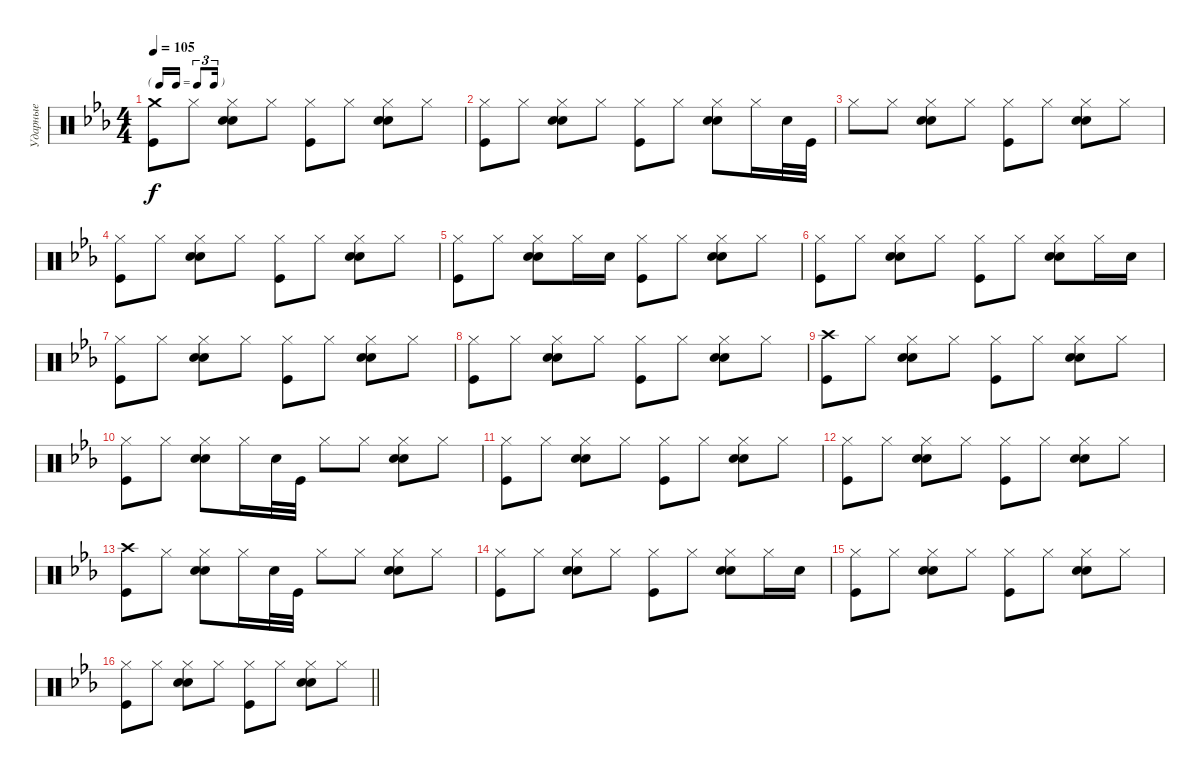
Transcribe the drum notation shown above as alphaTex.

\track ("Ударные" "Ударные") {instrument percussion}
\staff {score}
\articulation defaults
\ts (4 4)
\tf triplet16th
\tempo 105
\clef neutral
\ks cminor
("Kick (hit)" "Crash medium (hit)").8{dy f} "Hi-Hat (closed)".8 ("Snare (hit) 2" "Hi-Hat (closed)" "Hand Clap (hit)").8 "Hi-Hat (closed)".8 ("Kick (hit)" "Hi-Hat (closed)").8 "Hi-Hat (closed)".8 ("Snare (hit) 2" "Hi-Hat (closed)" "Hand Clap (hit)").8 "Hi-Hat (closed)".8 |
("Kick (hit)" "Hi-Hat (closed)").8 "Hi-Hat (closed)".8 ("Snare (hit) 2" "Hi-Hat (closed)" "Hand Clap (hit)").8 "Hi-Hat (closed)".8 ("Kick (hit)" "Hi-Hat (closed)").8 "Hi-Hat (closed)".8 ("Snare (hit) 2" "Hi-Hat (closed)" "Hand Clap (hit)").8 "Hi-Hat (closed)".16 "Snare (hit) 2".32 "Kick (hit)".32 |
"Hi-Hat (closed)".8 "Hi-Hat (closed)".8 ("Snare (hit) 2" "Hi-Hat (closed)" "Hand Clap (hit)").8 "Hi-Hat (closed)".8 ("Kick (hit)" "Hi-Hat (closed)").8 "Hi-Hat (closed)".8 ("Snare (hit) 2" "Hi-Hat (closed)" "Hand Clap (hit)").8 "Hi-Hat (closed)".8 |
("Kick (hit)" "Hi-Hat (closed)").8 "Hi-Hat (closed)".8 ("Snare (hit) 2" "Hi-Hat (closed)" "Hand Clap (hit)").8 "Hi-Hat (closed)".8 ("Kick (hit)" "Hi-Hat (closed)").8 "Hi-Hat (closed)".8 ("Snare (hit) 2" "Hi-Hat (closed)" "Hand Clap (hit)").8 "Hi-Hat (closed)".8 |
("Kick (hit)" "Hi-Hat (closed)").8 "Hi-Hat (closed)".8 ("Snare (hit) 2" "Hi-Hat (closed)" "Hand Clap (hit)").8 "Hi-Hat (closed)".16 "Snare (hit) 2".16 ("Hi-Hat (closed)" "Kick (hit)").8 "Hi-Hat (closed)".8 ("Snare (hit) 2" "Hi-Hat (closed)" "Hand Clap (hit)").8 "Hi-Hat (closed)".8 |
("Kick (hit)" "Hi-Hat (closed)").8 "Hi-Hat (closed)".8 ("Snare (hit) 2" "Hi-Hat (closed)" "Hand Clap (hit)").8 "Hi-Hat (closed)".8 ("Kick (hit)" "Hi-Hat (closed)").8 "Hi-Hat (closed)".8 ("Snare (hit) 2" "Hi-Hat (closed)" "Hand Clap (hit)").8 "Hi-Hat (closed)".16 "Snare (hit) 2".16 |
("Kick (hit)" "Hi-Hat (closed)").8 "Hi-Hat (closed)".8 ("Snare (hit) 2" "Hi-Hat (closed)" "Hand Clap (hit)").8 "Hi-Hat (closed)".8 ("Kick (hit)" "Hi-Hat (closed)").8 "Hi-Hat (closed)".8 ("Snare (hit) 2" "Hi-Hat (closed)" "Hand Clap (hit)").8 "Hi-Hat (closed)".8 |
("Kick (hit)" "Hi-Hat (closed)").8 "Hi-Hat (closed)".8 ("Snare (hit) 2" "Hi-Hat (closed)" "Hand Clap (hit)").8 "Hi-Hat (closed)".8 ("Kick (hit)" "Hi-Hat (closed)").8 "Hi-Hat (closed)".8 ("Snare (hit) 2" "Hi-Hat (closed)" "Hand Clap (hit)").8 "Hi-Hat (closed)".8 |
("Kick (hit)" "Crash high (hit)").8 "Hi-Hat (closed)".8 ("Snare (hit) 2" "Hi-Hat (closed)" "Hand Clap (hit)").8 "Hi-Hat (closed)".8 ("Kick (hit)" "Hi-Hat (closed)").8 "Hi-Hat (closed)".8 ("Snare (hit) 2" "Hi-Hat (closed)" "Hand Clap (hit)").8 "Hi-Hat (closed)".8 |
("Kick (hit)" "Hi-Hat (closed)").8 "Hi-Hat (closed)".8 ("Snare (hit) 2" "Hi-Hat (closed)" "Hand Clap (hit)").8 "Hi-Hat (closed)".16 "Snare (hit) 2".32 "Kick (hit)".32 "Hi-Hat (closed)".8 "Hi-Hat (closed)".8 ("Snare (hit) 2" "Hi-Hat (closed)" "Hand Clap (hit)").8 "Hi-Hat (closed)".8 |
("Kick (hit)" "Hi-Hat (closed)").8 "Hi-Hat (closed)".8 ("Snare (hit) 2" "Hi-Hat (closed)" "Hand Clap (hit)").8 "Hi-Hat (closed)".8 ("Kick (hit)" "Hi-Hat (closed)").8 "Hi-Hat (closed)".8 ("Snare (hit) 2" "Hi-Hat (closed)" "Hand Clap (hit)").8 "Hi-Hat (closed)".8 |
("Kick (hit)" "Hi-Hat (closed)").8 "Hi-Hat (closed)".8 ("Snare (hit) 2" "Hi-Hat (closed)" "Hand Clap (hit)").8 "Hi-Hat (closed)".8 ("Kick (hit)" "Hi-Hat (closed)").8 "Hi-Hat (closed)".8 ("Snare (hit) 2" "Hi-Hat (closed)" "Hand Clap (hit)").8 "Hi-Hat (closed)".8 |
("Kick (hit)" "Crash high (hit)").8 "Hi-Hat (closed)".8 ("Snare (hit) 2" "Hi-Hat (closed)" "Hand Clap (hit)").8 "Hi-Hat (closed)".16 "Snare (hit) 2".32 "Kick (hit)".32 "Hi-Hat (closed)".8 "Hi-Hat (closed)".8 ("Snare (hit) 2" "Hi-Hat (closed)" "Hand Clap (hit)").8 "Hi-Hat (closed)".8 |
("Kick (hit)" "Hi-Hat (closed)").8 "Hi-Hat (closed)".8 ("Snare (hit) 2" "Hi-Hat (closed)" "Hand Clap (hit)").8 "Hi-Hat (closed)".8 ("Kick (hit)" "Hi-Hat (closed)").8 "Hi-Hat (closed)".8 ("Snare (hit) 2" "Hi-Hat (closed)" "Hand Clap (hit)").8 "Hi-Hat (closed)".16 "Snare (hit) 2".16 |
("Kick (hit)" "Hi-Hat (closed)").8 "Hi-Hat (closed)".8 ("Snare (hit) 2" "Hi-Hat (closed)" "Hand Clap (hit)").8 "Hi-Hat (closed)".8 ("Kick (hit)" "Hi-Hat (closed)").8 "Hi-Hat (closed)".8 ("Snare (hit) 2" "Hi-Hat (closed)" "Hand Clap (hit)").8 "Hi-Hat (closed)".8 |
\barLineRight lightlight
("Kick (hit)" "Hi-Hat (closed)").8 "Hi-Hat (closed)".8 ("Snare (hit) 2" "Hi-Hat (closed)" "Hand Clap (hit)").8 "Hi-Hat (closed)".8 ("Kick (hit)" "Hi-Hat (closed)").8 "Hi-Hat (closed)".8 ("Snare (hit) 2" "Hi-Hat (closed)" "Hand Clap (hit)").8 "Hi-Hat (closed)".8
